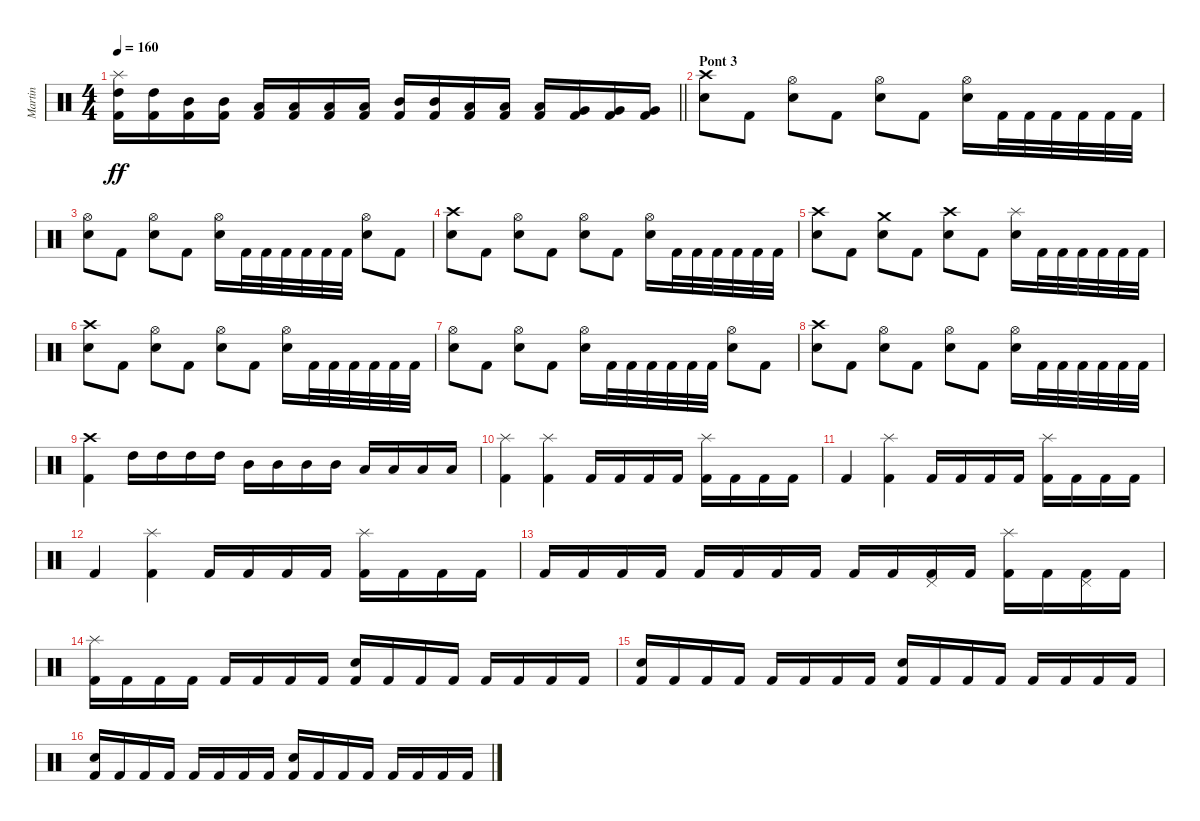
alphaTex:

\track ("Martin" "Martin") {instrument percussion}
\staff {score}
\articulation defaults
\ts (4 4)
\tempo 160
\clef neutral
\barLineRight lightlight
\ks c
("Splash (hit)" "High Tom (hit)" "Kick (hit) 2").16{dy ff} ("High Tom (hit)" "Kick (hit) 2").16 ("Mid Tom (hit)" "Kick (hit) 2").16 ("Mid Tom (hit)" "Kick (hit) 2").16 ("Low Tom (hit)" "Kick (hit) 2").16 ("Low Tom (hit)" "Kick (hit) 2").16 ("Low Tom (hit)" "Kick (hit) 2").16 ("Low Tom (hit)" "Kick (hit) 2").16 ("Mid Tom (hit)" "Kick (hit) 2").16 ("Mid Tom (hit)" "Kick (hit) 2").16 ("Low Tom (hit)" "Kick (hit) 2").16 ("Low Tom (hit)" "Kick (hit) 2").16 ("Low Tom (hit)" "Kick (hit) 2").16 ("Very Low Tom (hit)" "Kick (hit) 2").16 ("Very Low Tom (hit)" "Kick (hit) 2").16 ("Very Low Tom (hit)" "Kick (hit) 2").16 |
\section ("" "Pont 3")
("Crash high (hit)" "Electric Snare (hit)").8 "Kick (hit) 2".8 ("Hi-Hat (open)" "Electric Snare (hit)").8 "Kick (hit) 2".8 ("Hi-Hat (open)" "Electric Snare (hit)").8 "Kick (hit) 2".8 ("Hi-Hat (open)" "Electric Snare (hit)").16 "Kick (hit) 2".32 "Kick (hit) 2".32 "Kick (hit) 2".32 "Kick (hit) 2".32 "Kick (hit) 2".32 "Kick (hit) 2".32 |
("Hi-Hat (open)" "Electric Snare (hit)").8 "Kick (hit) 2".8 ("Hi-Hat (open)" "Electric Snare (hit)").8 "Kick (hit) 2".8 ("Hi-Hat (open)" "Electric Snare (hit)").16 "Kick (hit) 2".32 "Kick (hit) 2".32 "Kick (hit) 2".32 "Kick (hit) 2".32 "Kick (hit) 2".32 "Kick (hit) 2".32 ("Hi-Hat (open)" "Electric Snare (hit)").8 "Kick (hit) 2".8 |
("Crash high (hit)" "Electric Snare (hit)").8 "Kick (hit) 2".8 ("Hi-Hat (open)" "Electric Snare (hit)").8 "Kick (hit) 2".8 ("Hi-Hat (open)" "Electric Snare (hit)").8 "Kick (hit) 2".8 ("Hi-Hat (open)" "Electric Snare (hit)").16 "Kick (hit) 2".32 "Kick (hit) 2".32 "Kick (hit) 2".32 "Kick (hit) 2".32 "Kick (hit) 2".32 "Kick (hit) 2".32 |
("Crash high (hit)" "Electric Snare (hit)").8 "Kick (hit) 2".8 ("Crash medium (hit)" "Electric Snare (hit)").8 "Kick (hit) 2".8 ("Crash high (hit)" "Electric Snare (hit)").8 "Kick (hit) 2".8 ("Splash (hit)" "Electric Snare (hit)").16 "Kick (hit) 2".32 "Kick (hit) 2".32 "Kick (hit) 2".32 "Kick (hit) 2".32 "Kick (hit) 2".32 "Kick (hit) 2".32 |
("Crash high (hit)" "Electric Snare (hit)").8 "Kick (hit) 2".8 ("Hi-Hat (open)" "Electric Snare (hit)").8 "Kick (hit) 2".8 ("Hi-Hat (open)" "Electric Snare (hit)").8 "Kick (hit) 2".8 ("Hi-Hat (open)" "Electric Snare (hit)").16 "Kick (hit) 2".32 "Kick (hit) 2".32 "Kick (hit) 2".32 "Kick (hit) 2".32 "Kick (hit) 2".32 "Kick (hit) 2".32 |
("Hi-Hat (open)" "Electric Snare (hit)").8 "Kick (hit) 2".8 ("Hi-Hat (open)" "Electric Snare (hit)").8 "Kick (hit) 2".8 ("Hi-Hat (open)" "Electric Snare (hit)").16 "Kick (hit) 2".32 "Kick (hit) 2".32 "Kick (hit) 2".32 "Kick (hit) 2".32 "Kick (hit) 2".32 "Kick (hit) 2".32 ("Hi-Hat (open)" "Electric Snare (hit)").8 "Kick (hit) 2".8 |
("Crash high (hit)" "Electric Snare (hit)").8 "Kick (hit) 2".8 ("Hi-Hat (open)" "Electric Snare (hit)").8 "Kick (hit) 2".8 ("Hi-Hat (open)" "Electric Snare (hit)").8 "Kick (hit) 2".8 ("Hi-Hat (open)" "Electric Snare (hit)").16 "Kick (hit) 2".32 "Kick (hit) 2".32 "Kick (hit) 2".32 "Kick (hit) 2".32 "Kick (hit) 2".32 "Kick (hit) 2".32 |
("Crash high (hit)" "Kick (hit) 2").4 "High Tom (hit)".16 "High Tom (hit)".16 "High Tom (hit)".16 "High Tom (hit)".16 "Mid Tom (hit)".16 "Mid Tom (hit)".16 "Mid Tom (hit)".16 "Mid Tom (hit)".16 "Low Tom (hit)".16 "Low Tom (hit)".16 "Low Tom (hit)".16 "Low Tom (hit)".16 |
("Splash (hit)" "Kick (hit) 2").4 ("Splash (hit)" "Kick (hit) 2").4 "Kick (hit) 2".16 "Kick (hit) 2".16 "Kick (hit) 2".16 "Kick (hit) 2".16 ("Splash (hit)" "Kick (hit) 2").16 "Kick (hit) 2".16 "Kick (hit) 2".16 "Kick (hit) 2".16 |
"Kick (hit) 2".4 ("Splash (hit)" "Kick (hit) 2").4 "Kick (hit) 2".16 "Kick (hit) 2".16 "Kick (hit) 2".16 "Kick (hit) 2".16 ("Splash (hit)" "Kick (hit) 2").16 "Kick (hit) 2".16 "Kick (hit) 2".16 "Kick (hit) 2".16 |
"Kick (hit) 2".4 ("Splash (hit)" "Kick (hit) 2").4 "Kick (hit) 2".16 "Kick (hit) 2".16 "Kick (hit) 2".16 "Kick (hit) 2".16 ("Splash (hit)" "Kick (hit) 2").16 "Kick (hit) 2".16 "Kick (hit) 2".16 "Kick (hit) 2".16 |
"Kick (hit) 2".16 "Kick (hit) 2".16 "Kick (hit) 2".16 "Kick (hit) 2".16 "Kick (hit) 2".16 "Kick (hit) 2".16 "Kick (hit) 2".16 "Kick (hit) 2".16 "Kick (hit) 2".16 "Kick (hit) 2".16 ("Pedal Hi-Hat (hit)" "Kick (hit) 2").16 "Kick (hit) 2".16 ("Splash (hit)" "Kick (hit) 2").16 "Kick (hit) 2".16 ("Pedal Hi-Hat (hit)" "Kick (hit) 2").16 "Kick (hit) 2".16 |
("Splash (hit)" "Kick (hit) 2").16 "Kick (hit) 2".16 "Kick (hit) 2".16 "Kick (hit) 2".16 "Kick (hit) 2".16 "Kick (hit) 2".16 "Kick (hit) 2".16 "Kick (hit) 2".16 ("Electric Snare (hit)" "Kick (hit) 2").16 "Kick (hit) 2".16 "Kick (hit) 2".16 "Kick (hit) 2".16 "Kick (hit) 2".16 "Kick (hit) 2".16 "Kick (hit) 2".16 "Kick (hit) 2".16 |
("Electric Snare (hit)" "Kick (hit) 2").16 "Kick (hit) 2".16 "Kick (hit) 2".16 "Kick (hit) 2".16 "Kick (hit) 2".16 "Kick (hit) 2".16 "Kick (hit) 2".16 "Kick (hit) 2".16 ("Electric Snare (hit)" "Kick (hit) 2").16 "Kick (hit) 2".16 "Kick (hit) 2".16 "Kick (hit) 2".16 "Kick (hit) 2".16 "Kick (hit) 2".16 "Kick (hit) 2".16 "Kick (hit) 2".16 |
("Electric Snare (hit)" "Kick (hit) 2").16 "Kick (hit) 2".16 "Kick (hit) 2".16 "Kick (hit) 2".16 "Kick (hit) 2".16 "Kick (hit) 2".16 "Kick (hit) 2".16 "Kick (hit) 2".16 ("Electric Snare (hit)" "Kick (hit) 2").16 "Kick (hit) 2".16 "Kick (hit) 2".16 "Kick (hit) 2".16 "Kick (hit) 2".16 "Kick (hit) 2".16 "Kick (hit) 2".16 "Kick (hit) 2".16
